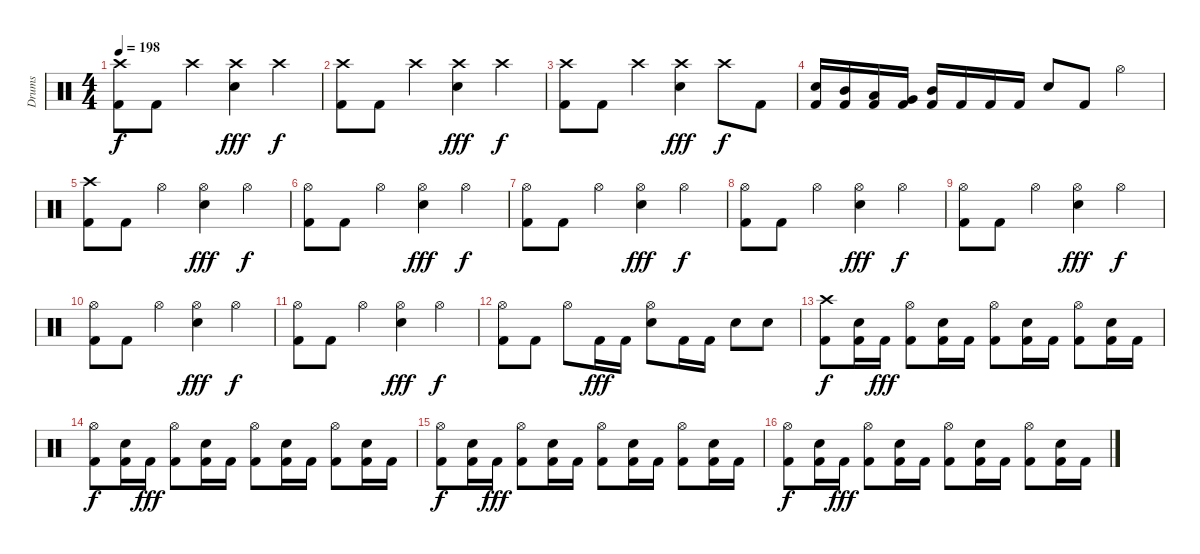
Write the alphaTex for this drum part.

\track ("Drums" "Drums") {instrument percussion}
\staff {score}
\articulation defaults
\ts (4 4)
\tempo 198
\clef neutral
\ks c
("Crash high (hit)" "Kick (hit) 2").8{dy f} "Kick (hit) 2".8 "Crash high (hit)".4 ("Crash high (hit)" "Electric Snare (hit)").4{dy fff} "Crash high (hit)".4{dy f} |
("Crash high (hit)" "Kick (hit) 2").8 "Kick (hit) 2".8 "Crash high (hit)".4 ("Crash high (hit)" "Electric Snare (hit)").4{dy fff} "Crash high (hit)".4{dy f} |
("Crash high (hit)" "Kick (hit) 2").8 "Kick (hit) 2".8 "Crash high (hit)".4 ("Crash high (hit)" "Electric Snare (hit)").4{dy fff} "Crash high (hit)".8{dy f} "Kick (hit) 2".8 |
("Electric Snare (hit)" "Kick (hit) 2").16 ("Mid Tom (hit)" "Kick (hit) 2").16 ("Low Tom (hit)" "Kick (hit) 2").16 ("Very Low Tom (hit)" "Kick (hit) 2").16 ("Mid Tom (hit)" "Kick (hit) 2").16 "Kick (hit) 2".16 "Kick (hit) 2".16 "Kick (hit) 2".16 "Electric Snare (hit)".8 "Kick (hit) 2".8 "Hi-Hat (open)".4 |
("Crash high (hit)" "Kick (hit) 2").8 "Kick (hit) 2".8 "Hi-Hat (open)".4 ("Hi-Hat (open)" "Electric Snare (hit)").4{dy fff} "Hi-Hat (open)".4{dy f} |
("Hi-Hat (open)" "Kick (hit) 2").8 "Kick (hit) 2".8 "Hi-Hat (open)".4 ("Hi-Hat (open)" "Electric Snare (hit)").4{dy fff} "Hi-Hat (open)".4{dy f} |
("Hi-Hat (open)" "Kick (hit) 2").8 "Kick (hit) 2".8 "Hi-Hat (open)".4 ("Hi-Hat (open)" "Electric Snare (hit)").4{dy fff} "Hi-Hat (open)".4{dy f} |
("Hi-Hat (open)" "Kick (hit) 2").8 "Kick (hit) 2".8 "Hi-Hat (open)".4 ("Hi-Hat (open)" "Electric Snare (hit)").4{dy fff} "Hi-Hat (open)".4{dy f} |
("Hi-Hat (open)" "Kick (hit) 2").8 "Kick (hit) 2".8 "Hi-Hat (open)".4 ("Hi-Hat (open)" "Electric Snare (hit)").4{dy fff} "Hi-Hat (open)".4{dy f} |
("Hi-Hat (open)" "Kick (hit) 2").8 "Kick (hit) 2".8 "Hi-Hat (open)".4 ("Hi-Hat (open)" "Electric Snare (hit)").4{dy fff} "Hi-Hat (open)".4{dy f} |
("Hi-Hat (open)" "Kick (hit) 2").8 "Kick (hit) 2".8 "Hi-Hat (open)".4 ("Hi-Hat (open)" "Electric Snare (hit)").4{dy fff} "Hi-Hat (open)".4{dy f} |
("Hi-Hat (open)" "Kick (hit) 2").8 "Kick (hit) 2".8 "Hi-Hat (open)".8 "Kick (hit) 2".16{dy fff} "Kick (hit) 2".16 ("Hi-Hat (open)" "Electric Snare (hit)").8 "Kick (hit) 2".16 "Kick (hit) 2".16 "Electric Snare (hit)".8 "Electric Snare (hit)".8 |
("Crash high (hit)" "Kick (hit) 2").8{dy f} ("Electric Snare (hit)" "Kick (hit) 2").16 "Kick (hit) 2".16{dy fff} ("Hi-Hat (open)" "Kick (hit) 2").8 ("Electric Snare (hit)" "Kick (hit) 2").16 "Kick (hit) 2".16 ("Hi-Hat (open)" "Kick (hit) 2").8 ("Electric Snare (hit)" "Kick (hit) 2").16 "Kick (hit) 2".16 ("Hi-Hat (open)" "Kick (hit) 2").8 ("Electric Snare (hit)" "Kick (hit) 2").16 "Kick (hit) 2".16 |
("Hi-Hat (open)" "Kick (hit) 2").8{dy f} ("Electric Snare (hit)" "Kick (hit) 2").16 "Kick (hit) 2".16{dy fff} ("Hi-Hat (open)" "Kick (hit) 2").8 ("Electric Snare (hit)" "Kick (hit) 2").16 "Kick (hit) 2".16 ("Hi-Hat (open)" "Kick (hit) 2").8 ("Electric Snare (hit)" "Kick (hit) 2").16 "Kick (hit) 2".16 ("Hi-Hat (open)" "Kick (hit) 2").8 ("Electric Snare (hit)" "Kick (hit) 2").16 "Kick (hit) 2".16 |
("Hi-Hat (open)" "Kick (hit) 2").8{dy f} ("Electric Snare (hit)" "Kick (hit) 2").16 "Kick (hit) 2".16{dy fff} ("Hi-Hat (open)" "Kick (hit) 2").8 ("Electric Snare (hit)" "Kick (hit) 2").16 "Kick (hit) 2".16 ("Hi-Hat (open)" "Kick (hit) 2").8 ("Electric Snare (hit)" "Kick (hit) 2").16 "Kick (hit) 2".16 ("Hi-Hat (open)" "Kick (hit) 2").8 ("Electric Snare (hit)" "Kick (hit) 2").16 "Kick (hit) 2".16 |
("Hi-Hat (open)" "Kick (hit) 2").8{dy f} ("Electric Snare (hit)" "Kick (hit) 2").16 "Kick (hit) 2".16{dy fff} ("Hi-Hat (open)" "Kick (hit) 2").8 ("Electric Snare (hit)" "Kick (hit) 2").16 "Kick (hit) 2".16 ("Hi-Hat (open)" "Kick (hit) 2").8 ("Electric Snare (hit)" "Kick (hit) 2").16 "Kick (hit) 2".16 ("Hi-Hat (open)" "Kick (hit) 2").8 ("Electric Snare (hit)" "Kick (hit) 2").16 "Kick (hit) 2".16
